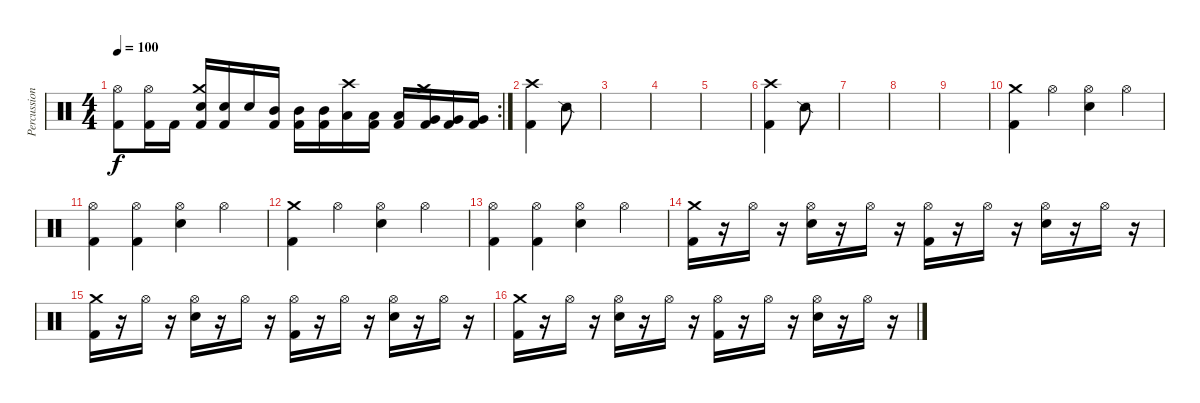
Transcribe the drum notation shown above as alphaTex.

\track ("Percussion" "Percussion") {instrument percussion}
\staff {score}
\articulation defaults
\rc 2
\ts (4 4)
\tempo 100
\clef neutral
\ks c
("Hi-Hat (open)" "Kick (hit) 2").8{dy f} ("Hi-Hat (open)" "Kick (hit) 2").16 "Kick (hit) 2".16 ("Crash medium (hit)" "Electric Snare (hit)" "Kick (hit) 2").16 ("Electric Snare (hit)" "Kick (hit) 2").16 "Electric Snare (hit)".16 ("Mid Tom (hit)" "Kick (hit) 2").16 ("Mid Tom (hit)" "Kick (hit) 2").16 ("Mid Tom (hit)" "Kick (hit) 2").16 ("Crash high (hit)" "Low Tom (hit)").16 ("Low Tom (hit)" "Kick (hit) 2").16 ("Low Tom (hit)" "Kick (hit) 2").16 ("Crash medium (hit)" "Very Low Tom (hit)" "Kick (hit) 2").16 ("Very Low Tom (hit)" "Kick (hit) 2").16 ("Very Low Tom (hit)" "Kick (hit) 2").16 |
("Crash high (hit)" "Kick (hit) 2").4 "Snare (side stick) 2".8 |
|
|
|
("Crash high (hit)" "Kick (hit) 2").4 "Snare (side stick) 2".8 |
|
|
|
("Crash medium (hit)" "Kick (hit) 2").4 "Hi-Hat (open)".4 ("Hi-Hat (open)" "Electric Snare (hit)").4 "Hi-Hat (open)".4 |
("Hi-Hat (open)" "Kick (hit) 2").4 ("Hi-Hat (open)" "Kick (hit) 2").4 ("Hi-Hat (open)" "Electric Snare (hit)").4 "Hi-Hat (open)".4 |
("Crash medium (hit)" "Kick (hit) 2").4 "Hi-Hat (open)".4 ("Hi-Hat (open)" "Electric Snare (hit)").4 "Hi-Hat (open)".4 |
("Hi-Hat (open)" "Kick (hit) 2").4 ("Hi-Hat (open)" "Kick (hit) 2").4 ("Hi-Hat (open)" "Electric Snare (hit)").4 "Hi-Hat (open)".4 |
("Crash medium (hit)" "Kick (hit) 2").16 r.16 "Hi-Hat (open)".16 r.16 ("Hi-Hat (open)" "Electric Snare (hit)").16 r.16 "Hi-Hat (open)".16 r.16 ("Hi-Hat (open)" "Kick (hit) 2").16 r.16 "Hi-Hat (open)".16 r.16 ("Hi-Hat (open)" "Electric Snare (hit)").16 r.16 "Hi-Hat (open)".16 r.16 |
("Crash medium (hit)" "Kick (hit) 2").16 r.16 "Hi-Hat (open)".16 r.16 ("Hi-Hat (open)" "Electric Snare (hit)").16 r.16 "Hi-Hat (open)".16 r.16 ("Hi-Hat (open)" "Kick (hit) 2").16 r.16 "Hi-Hat (open)".16 r.16 ("Hi-Hat (open)" "Electric Snare (hit)").16 r.16 "Hi-Hat (open)".16 r.16 |
("Crash medium (hit)" "Kick (hit) 2").16 r.16 "Hi-Hat (open)".16 r.16 ("Hi-Hat (open)" "Electric Snare (hit)").16 r.16 "Hi-Hat (open)".16 r.16 ("Hi-Hat (open)" "Kick (hit) 2").16 r.16 "Hi-Hat (open)".16 r.16 ("Hi-Hat (open)" "Electric Snare (hit)").16 r.16 "Hi-Hat (open)".16 r.16
